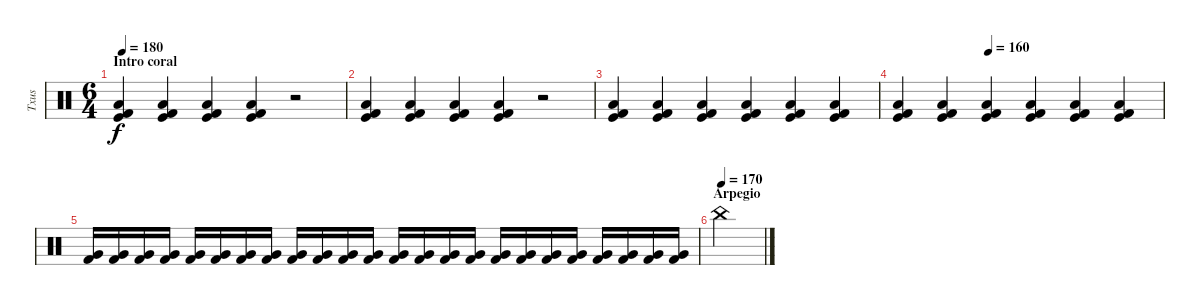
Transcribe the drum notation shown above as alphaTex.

\track ("Txus" "Txus") {instrument percussion}
\staff {score}
\articulation defaults
\ts (6 4)
\section ("" "Intro coral")
\tempo 180
\tempo 188
\tempo 180
\clef neutral
\ks c
("Kick (hit) 2" "Low Tom (hit)" "Kick (hit)").4{dy f} ("Kick (hit) 2" "Low Tom (hit)" "Kick (hit)").4 ("Kick (hit) 2" "Low Tom (hit)" "Kick (hit)").4 ("Kick (hit) 2" "Low Tom (hit)" "Kick (hit)").4 r.2 |
("Kick (hit) 2" "Low Tom (hit)" "Kick (hit)").4 ("Kick (hit) 2" "Low Tom (hit)" "Kick (hit)").4 ("Kick (hit) 2" "Low Tom (hit)" "Kick (hit)").4 ("Kick (hit) 2" "Low Tom (hit)" "Kick (hit)").4 r.2 |
("Kick (hit) 2" "Low Tom (hit)" "Kick (hit)").4 ("Kick (hit) 2" "Low Tom (hit)" "Kick (hit)").4 ("Kick (hit) 2" "Low Tom (hit)" "Kick (hit)").4 ("Kick (hit) 2" "Low Tom (hit)" "Kick (hit)").4 ("Kick (hit) 2" "Low Tom (hit)" "Kick (hit)").4 ("Kick (hit) 2" "Low Tom (hit)" "Kick (hit)").4 |
\tempo (160 0.3333333333333333)
("Kick (hit) 2" "Low Tom (hit)" "Kick (hit)").4 ("Kick (hit) 2" "Low Tom (hit)" "Kick (hit)").4 ("Kick (hit) 2" "Low Tom (hit)" "Kick (hit)").4 ("Kick (hit) 2" "Low Tom (hit)" "Kick (hit)").4 ("Kick (hit) 2" "Low Tom (hit)" "Kick (hit)").4 ("Kick (hit) 2" "Low Tom (hit)" "Kick (hit)").4 |
("Kick (hit) 2" "Very Low Tom (hit)").16{volume 10} ("Kick (hit) 2" "Very Low Tom (hit)").16 ("Kick (hit) 2" "Very Low Tom (hit)").16 ("Kick (hit) 2" "Very Low Tom (hit)").16 ("Kick (hit) 2" "Very Low Tom (hit)").16 ("Kick (hit) 2" "Very Low Tom (hit)").16 ("Kick (hit) 2" "Very Low Tom (hit)").16 ("Kick (hit) 2" "Very Low Tom (hit)").16 ("Kick (hit) 2" "Very Low Tom (hit)").16 ("Kick (hit) 2" "Very Low Tom (hit)").16 ("Kick (hit) 2" "Very Low Tom (hit)").16 ("Kick (hit) 2" "Very Low Tom (hit)").16 ("Kick (hit) 2" "Very Low Tom (hit)").16 ("Kick (hit) 2" "Very Low Tom (hit)").16 ("Kick (hit) 2" "Very Low Tom (hit)").16 ("Kick (hit) 2" "Very Low Tom (hit)").16 ("Kick (hit) 2" "Very Low Tom (hit)").16 ("Kick (hit) 2" "Very Low Tom (hit)").16 ("Kick (hit) 2" "Very Low Tom (hit)").16 ("Kick (hit) 2" "Very Low Tom (hit)").16 ("Kick (hit) 2" "Very Low Tom (hit)").16 ("Kick (hit) 2" "Very Low Tom (hit)").16 ("Kick (hit) 2" "Very Low Tom (hit)").16 ("Kick (hit) 2" "Very Low Tom (hit)").16 |
\section ("" "Arpegio")
\tempo (170)
"China (hit)".2{volume 16}
